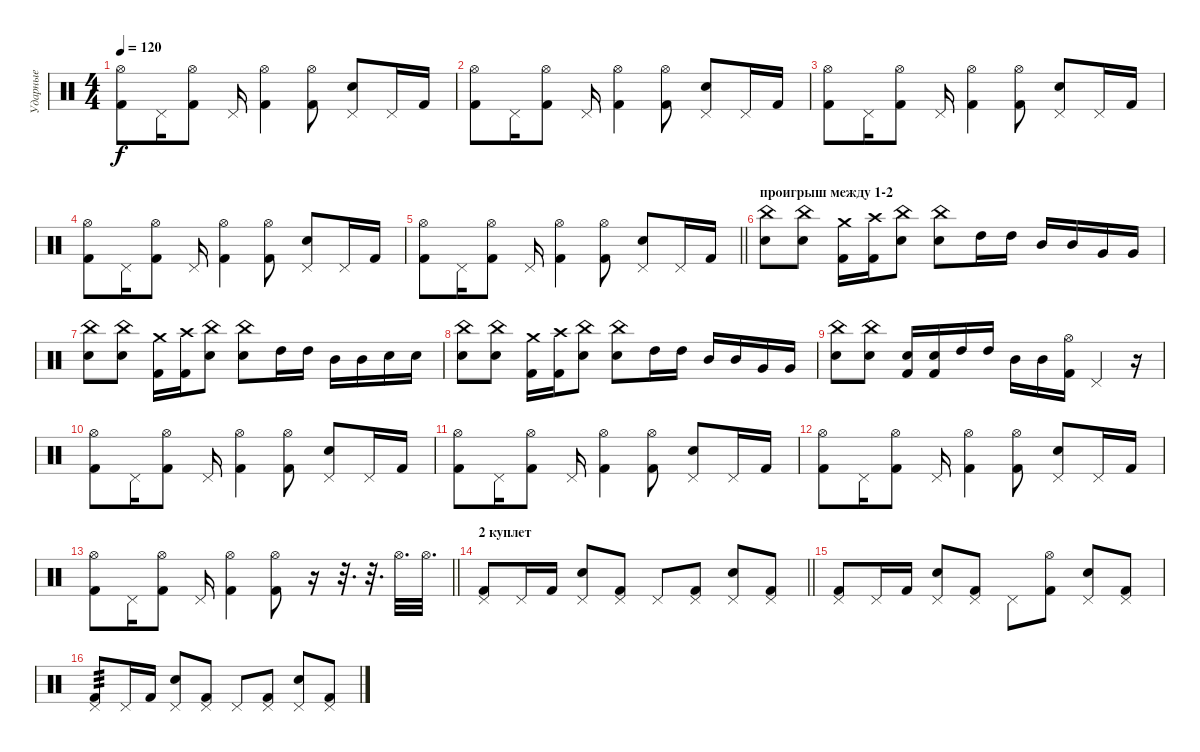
\track ("Ударные" "Ударные") {instrument percussion}
\staff {score}
\articulation defaults
\ts (4 4)
\tempo 120
\clef neutral
\ks c
("Hi-Hat (open)" "Kick (hit) 2").8{dy f} "Pedal Hi-Hat (hit)".16 ("Hi-Hat (open)" "Kick (hit) 2").8 "Pedal Hi-Hat (hit)".16 ("Hi-Hat (open)" "Kick (hit) 2").4 ("Hi-Hat (open)" "Kick (hit) 2").8 ("Pedal Hi-Hat (hit)" "Electric Snare (hit)").8 "Pedal Hi-Hat (hit)".16 "Kick (hit) 2".16 |
("Hi-Hat (open)" "Kick (hit) 2").8 "Pedal Hi-Hat (hit)".16 ("Hi-Hat (open)" "Kick (hit) 2").8 "Pedal Hi-Hat (hit)".16 ("Hi-Hat (open)" "Kick (hit) 2").4 ("Hi-Hat (open)" "Kick (hit) 2").8 ("Pedal Hi-Hat (hit)" "Electric Snare (hit)").8 "Pedal Hi-Hat (hit)".16 "Kick (hit) 2".16 |
("Hi-Hat (open)" "Kick (hit) 2").8 "Pedal Hi-Hat (hit)".16 ("Hi-Hat (open)" "Kick (hit) 2").8 "Pedal Hi-Hat (hit)".16 ("Hi-Hat (open)" "Kick (hit) 2").4 ("Hi-Hat (open)" "Kick (hit) 2").8 ("Pedal Hi-Hat (hit)" "Electric Snare (hit)").8 "Pedal Hi-Hat (hit)".16 "Kick (hit) 2".16 |
("Hi-Hat (open)" "Kick (hit) 2").8 "Pedal Hi-Hat (hit)".16 ("Hi-Hat (open)" "Kick (hit) 2").8 "Pedal Hi-Hat (hit)".16 ("Hi-Hat (open)" "Kick (hit) 2").4 ("Hi-Hat (open)" "Kick (hit) 2").8 ("Pedal Hi-Hat (hit)" "Electric Snare (hit)").8 "Pedal Hi-Hat (hit)".16 "Kick (hit) 2".16 |
\barLineRight lightlight
("Hi-Hat (open)" "Kick (hit) 2").8 "Pedal Hi-Hat (hit)".16 ("Hi-Hat (open)" "Kick (hit) 2").8 "Pedal Hi-Hat (hit)".16 ("Hi-Hat (open)" "Kick (hit) 2").4 ("Hi-Hat (open)" "Kick (hit) 2").8 ("Pedal Hi-Hat (hit)" "Electric Snare (hit)").8 "Pedal Hi-Hat (hit)".16 "Kick (hit) 2".16 |
\section ("" "проигрыш между 1-2")
("China (hit)" "Electric Snare (hit)").8 ("China (hit)" "Electric Snare (hit)").8 ("Crash medium (hit)" "Kick (hit) 2").16 ("Crash high (hit)" "Kick (hit) 2").16 ("China (hit)" "Electric Snare (hit)").8 ("China (hit)" "Electric Snare (hit)").8 "High Tom (hit)".16 "High Tom (hit)".16 "Mid Tom (hit)".16 "Mid Tom (hit)".16 "Very Low Tom (hit)".16 "Very Low Tom (hit)".16 |
("China (hit)" "Electric Snare (hit)").8 ("China (hit)" "Electric Snare (hit)").8 ("Crash medium (hit)" "Kick (hit) 2").16 ("Crash high (hit)" "Kick (hit) 2").16 ("China (hit)" "Electric Snare (hit)").8 ("China (hit)" "Electric Snare (hit)").8 "High Tom (hit)".16 "High Tom (hit)".16 "Mid Tom (hit)".16 "Mid Tom (hit)".16 "Electric Snare (hit)".16 "Electric Snare (hit)".16 |
("China (hit)" "Electric Snare (hit)").8 ("China (hit)" "Electric Snare (hit)").8 ("Crash medium (hit)" "Kick (hit) 2").16 ("Crash high (hit)" "Kick (hit) 2").16 ("China (hit)" "Electric Snare (hit)").8 ("China (hit)" "Electric Snare (hit)").8 "High Tom (hit)".16 "High Tom (hit)".16 "Mid Tom (hit)".16 "Mid Tom (hit)".16 "Very Low Tom (hit)".16 "Very Low Tom (hit)".16 |
("China (hit)" "Electric Snare (hit)").8 ("China (hit)" "Electric Snare (hit)").8 ("Electric Snare (hit)" "Kick (hit) 2").16 ("Electric Snare (hit)" "Kick (hit) 2").16 "High Tom (hit)".16 "High Tom (hit)".16 "Mid Tom (hit)".16 "Mid Tom (hit)".16 ("Hi-Hat (open)" "Kick (hit) 2").16 "Pedal Hi-Hat (hit)".4 r.16 |
("Hi-Hat (open)" "Kick (hit) 2").8 "Pedal Hi-Hat (hit)".16 ("Hi-Hat (open)" "Kick (hit) 2").8 "Pedal Hi-Hat (hit)".16 ("Hi-Hat (open)" "Kick (hit) 2").4 ("Hi-Hat (open)" "Kick (hit) 2").8 ("Pedal Hi-Hat (hit)" "Electric Snare (hit)").8 "Pedal Hi-Hat (hit)".16 "Kick (hit) 2".16 |
("Hi-Hat (open)" "Kick (hit) 2").8 "Pedal Hi-Hat (hit)".16 ("Hi-Hat (open)" "Kick (hit) 2").8 "Pedal Hi-Hat (hit)".16 ("Hi-Hat (open)" "Kick (hit) 2").4 ("Hi-Hat (open)" "Kick (hit) 2").8 ("Pedal Hi-Hat (hit)" "Electric Snare (hit)").8 "Pedal Hi-Hat (hit)".16 "Kick (hit) 2".16 |
("Hi-Hat (open)" "Kick (hit) 2").8 "Pedal Hi-Hat (hit)".16 ("Hi-Hat (open)" "Kick (hit) 2").8 "Pedal Hi-Hat (hit)".16 ("Hi-Hat (open)" "Kick (hit) 2").4 ("Hi-Hat (open)" "Kick (hit) 2").8 ("Pedal Hi-Hat (hit)" "Electric Snare (hit)").8 "Pedal Hi-Hat (hit)".16 "Kick (hit) 2".16 |
\barLineRight lightlight
("Hi-Hat (open)" "Kick (hit) 2").8 "Pedal Hi-Hat (hit)".16 ("Hi-Hat (open)" "Kick (hit) 2").8 "Pedal Hi-Hat (hit)".16 ("Hi-Hat (open)" "Kick (hit) 2").4 ("Hi-Hat (open)" "Kick (hit) 2").8 r.16 r.32{d} r.32{d} "Hi-Hat (open)".32{d} "Hi-Hat (open)".32{d} |
\section ("" "2 куплет")
\barLineRight lightlight
("Pedal Hi-Hat (hit)" "Kick (hit) 2").8 "Pedal Hi-Hat (hit)".16 "Kick (hit) 2".16 ("Pedal Hi-Hat (hit)" "Electric Snare (hit)").8 ("Pedal Hi-Hat (hit)" "Kick (hit) 2").8 "Pedal Hi-Hat (hit)".8 ("Pedal Hi-Hat (hit)" "Kick (hit) 2").8 ("Pedal Hi-Hat (hit)" "Electric Snare (hit)").8 ("Pedal Hi-Hat (hit)" "Kick (hit) 2").8 |
\section ("" "")
("Pedal Hi-Hat (hit)" "Kick (hit) 2").8 "Pedal Hi-Hat (hit)".16 "Kick (hit) 2".16 ("Pedal Hi-Hat (hit)" "Electric Snare (hit)").8 ("Pedal Hi-Hat (hit)" "Kick (hit) 2").8 "Pedal Hi-Hat (hit)".8 ("Hi-Hat (open)" "Kick (hit) 2").8 ("Pedal Hi-Hat (hit)" "Electric Snare (hit)").8 ("Pedal Hi-Hat (hit)" "Kick (hit) 2").8 |
("Pedal Hi-Hat (hit)" "Kick (hit) 2").8{tp 3} "Pedal Hi-Hat (hit)".16 "Kick (hit) 2".16 ("Pedal Hi-Hat (hit)" "Electric Snare (hit)").8 ("Pedal Hi-Hat (hit)" "Kick (hit) 2").8 "Pedal Hi-Hat (hit)".8 ("Pedal Hi-Hat (hit)" "Kick (hit) 2").8 ("Pedal Hi-Hat (hit)" "Electric Snare (hit)").8 ("Pedal Hi-Hat (hit)" "Kick (hit) 2").8
